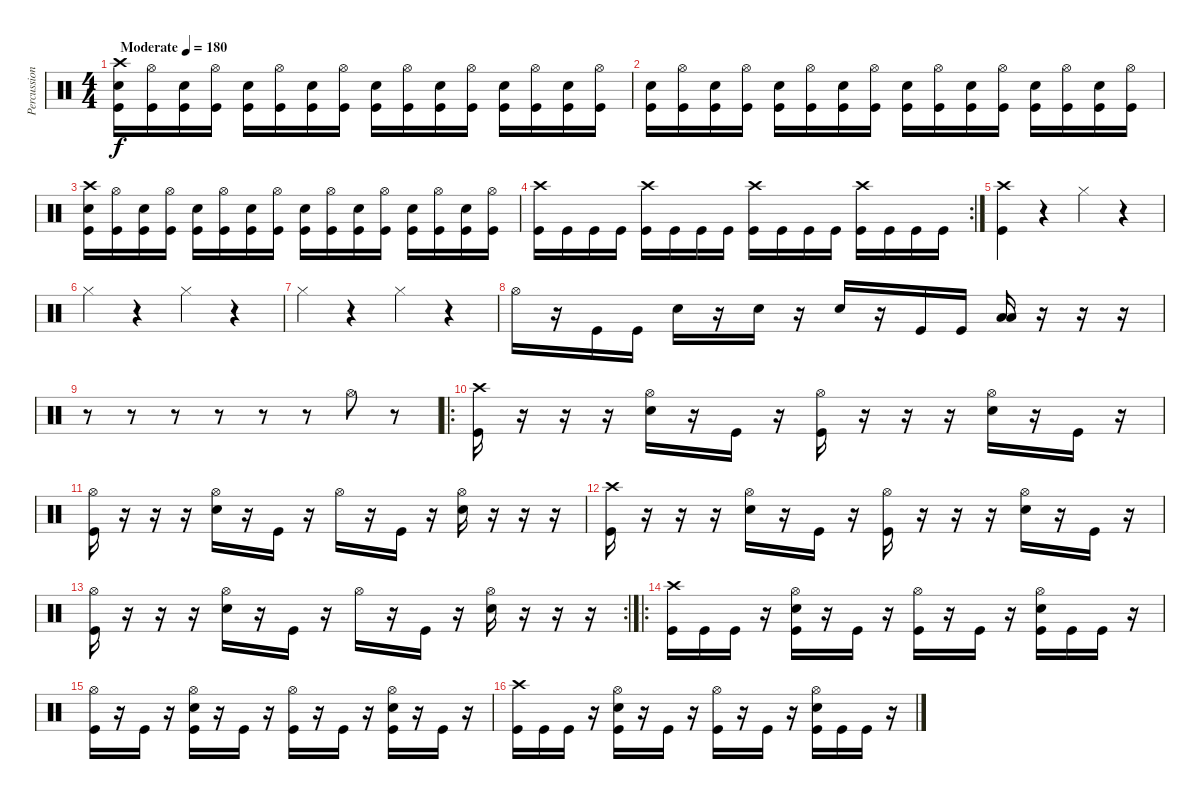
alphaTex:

\track ("Percussion" "Percussion") {instrument percussion}
\staff {score}
\articulation defaults
\ts (4 4)
\tempo (180 "Moderate")
\clef neutral
\ks c
("Crash high (hit)" "Electric Snare (hit)" "Kick (hit)").16{dy f} ("Hi-Hat (open)" "Kick (hit)").16 ("Electric Snare (hit)" "Kick (hit)").16 ("Hi-Hat (open)" "Kick (hit)").16 ("Electric Snare (hit)" "Kick (hit)").16 ("Hi-Hat (open)" "Kick (hit)").16 ("Electric Snare (hit)" "Kick (hit)").16 ("Hi-Hat (open)" "Kick (hit)").16 ("Electric Snare (hit)" "Kick (hit)").16 ("Hi-Hat (open)" "Kick (hit)").16 ("Electric Snare (hit)" "Kick (hit)").16 ("Hi-Hat (open)" "Kick (hit)").16 ("Electric Snare (hit)" "Kick (hit)").16 ("Hi-Hat (open)" "Kick (hit)").16 ("Electric Snare (hit)" "Kick (hit)").16 ("Hi-Hat (open)" "Kick (hit)").16 |
("Electric Snare (hit)" "Kick (hit)").16 ("Hi-Hat (open)" "Kick (hit)").16 ("Electric Snare (hit)" "Kick (hit)").16 ("Hi-Hat (open)" "Kick (hit)").16 ("Electric Snare (hit)" "Kick (hit)").16 ("Hi-Hat (open)" "Kick (hit)").16 ("Electric Snare (hit)" "Kick (hit)").16 ("Hi-Hat (open)" "Kick (hit)").16 ("Electric Snare (hit)" "Kick (hit)").16 ("Hi-Hat (open)" "Kick (hit)").16 ("Electric Snare (hit)" "Kick (hit)").16 ("Hi-Hat (open)" "Kick (hit)").16 ("Electric Snare (hit)" "Kick (hit)").16 ("Hi-Hat (open)" "Kick (hit)").16 ("Electric Snare (hit)" "Kick (hit)").16 ("Hi-Hat (open)" "Kick (hit)").16 |
("Crash high (hit)" "Electric Snare (hit)" "Kick (hit)").16 ("Hi-Hat (open)" "Kick (hit)").16 ("Electric Snare (hit)" "Kick (hit)").16 ("Hi-Hat (open)" "Kick (hit)").16 ("Electric Snare (hit)" "Kick (hit)").16 ("Hi-Hat (open)" "Kick (hit)").16 ("Electric Snare (hit)" "Kick (hit)").16 ("Hi-Hat (open)" "Kick (hit)").16 ("Electric Snare (hit)" "Kick (hit)").16 ("Hi-Hat (open)" "Kick (hit)").16 ("Electric Snare (hit)" "Kick (hit)").16 ("Hi-Hat (open)" "Kick (hit)").16 ("Electric Snare (hit)" "Kick (hit)").16 ("Hi-Hat (open)" "Kick (hit)").16 ("Electric Snare (hit)" "Kick (hit)").16 ("Hi-Hat (open)" "Kick (hit)").16 |
\rc 2
("Crash high (hit)" "Kick (hit)").16 "Kick (hit)".16 "Kick (hit)".16 "Kick (hit)".16 ("Crash high (hit)" "Kick (hit)").16 "Kick (hit)".16 "Kick (hit)".16 "Kick (hit)".16 ("Crash high (hit)" "Kick (hit)").16 "Kick (hit)".16 "Kick (hit)".16 "Kick (hit)".16 ("Crash high (hit)" "Kick (hit)").16 "Kick (hit)".16 "Kick (hit)".16 "Kick (hit)".16 |
("Crash high (hit)" "Kick (hit)").4 r.4 "Hi-Hat (closed)".4 r.4 |
"Hi-Hat (closed)".4 r.4 "Hi-Hat (closed)".4 r.4 |
"Hi-Hat (closed)".4 r.4 "Hi-Hat (closed)".4 r.4 |
"Hi-Hat (open)".16 r.16 "Kick (hit)".16 "Kick (hit)".16 "Electric Snare (hit)".16 r.16 "Electric Snare (hit)".16 r.16 "Electric Snare (hit)".16 r.16 "Kick (hit)".16 "Kick (hit)".16 ("Low Floor Tom (hit)" "Low Tom (hit)").16 r.16 r.16 r.16 |
r.8 r.8 r.8 r.8 r.8 r.8 "Hi-Hat (open)".8 r.8 |
\ro
("Crash high (hit)" "Kick (hit)").16 r.16 r.16 r.16 ("Hi-Hat (open)" "Electric Snare (hit)").16 r.16 "Kick (hit)".16 r.16 ("Hi-Hat (open)" "Kick (hit)").16 r.16 r.16 r.16 ("Hi-Hat (open)" "Electric Snare (hit)").16 r.16 "Kick (hit)".16 r.16 |
("Hi-Hat (open)" "Kick (hit)").16 r.16 r.16 r.16 ("Hi-Hat (open)" "Electric Snare (hit)").16 r.16 "Kick (hit)".16 r.16 "Hi-Hat (open)".16 r.16 "Kick (hit)".16 r.16 ("Hi-Hat (open)" "Electric Snare (hit)").16 r.16 r.16 r.16 |
("Crash high (hit)" "Kick (hit)").16 r.16 r.16 r.16 ("Hi-Hat (open)" "Electric Snare (hit)").16 r.16 "Kick (hit)".16 r.16 ("Hi-Hat (open)" "Kick (hit)").16 r.16 r.16 r.16 ("Hi-Hat (open)" "Electric Snare (hit)").16 r.16 "Kick (hit)".16 r.16 |
\rc 2
("Hi-Hat (open)" "Kick (hit)").16 r.16 r.16 r.16 ("Hi-Hat (open)" "Electric Snare (hit)").16 r.16 "Kick (hit)".16 r.16 "Hi-Hat (open)".16 r.16 "Kick (hit)".16 r.16 ("Hi-Hat (open)" "Electric Snare (hit)").16 r.16 r.16 r.16 |
\ro
("Crash high (hit)" "Kick (hit)").16 "Kick (hit)".16 "Kick (hit)".16 r.16 ("Hi-Hat (open)" "Electric Snare (hit)" "Kick (hit)").16 r.16 "Kick (hit)".16 r.16 ("Hi-Hat (open)" "Kick (hit)").16 r.16 "Kick (hit)".16 r.16 ("Hi-Hat (open)" "Electric Snare (hit)" "Kick (hit)").16 "Kick (hit)".16 "Kick (hit)".16 r.16 |
("Hi-Hat (open)" "Kick (hit)").16 r.16 "Kick (hit)".16 r.16 ("Hi-Hat (open)" "Electric Snare (hit)" "Kick (hit)").16 r.16 "Kick (hit)".16 r.16 ("Hi-Hat (open)" "Kick (hit)").16 r.16 "Kick (hit)".16 r.16 ("Hi-Hat (open)" "Electric Snare (hit)" "Kick (hit)").16 r.16 "Kick (hit)".16 r.16 |
("Crash high (hit)" "Kick (hit)").16 "Kick (hit)".16 "Kick (hit)".16 r.16 ("Hi-Hat (open)" "Electric Snare (hit)" "Kick (hit)").16 r.16 "Kick (hit)".16 r.16 ("Hi-Hat (open)" "Kick (hit)").16 r.16 "Kick (hit)".16 r.16 ("Hi-Hat (open)" "Electric Snare (hit)" "Kick (hit)").16 "Kick (hit)".16 "Kick (hit)".16 r.16
